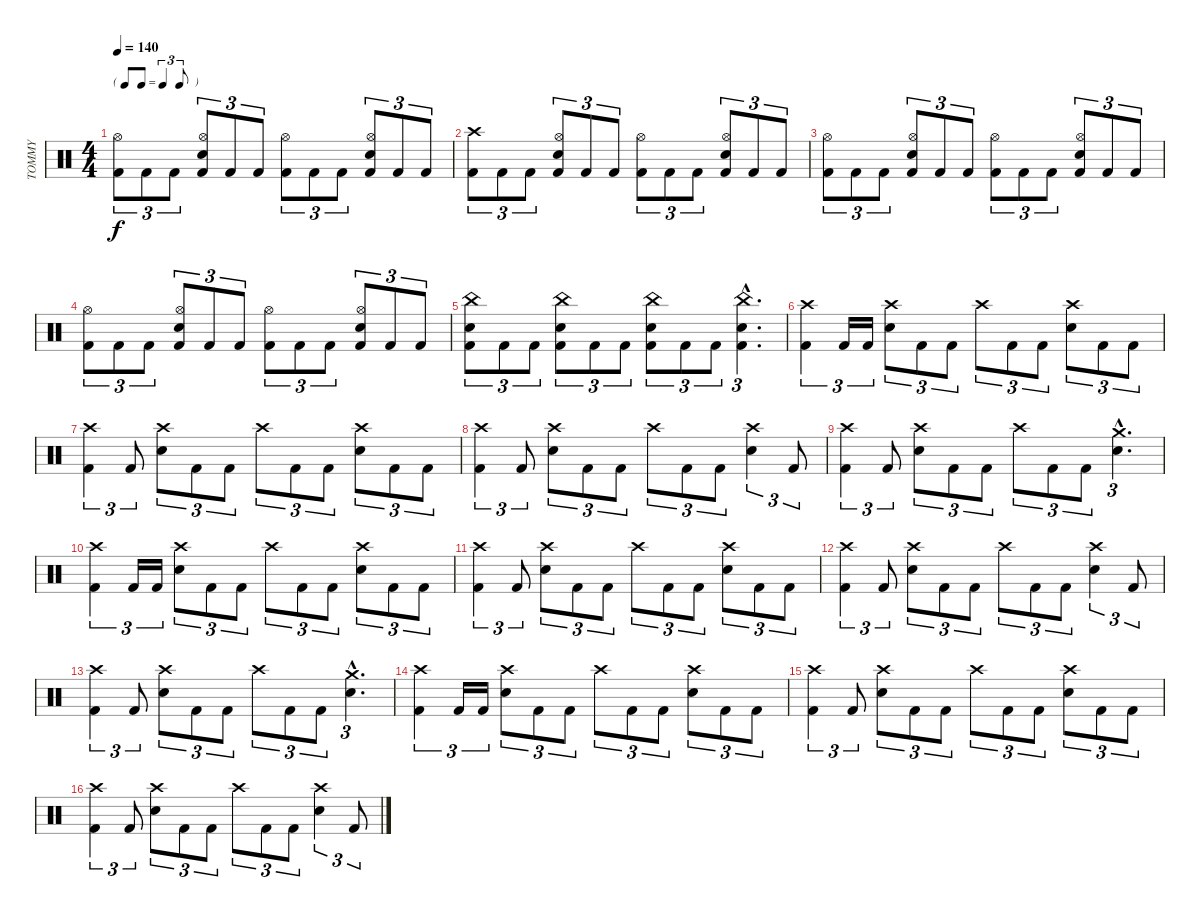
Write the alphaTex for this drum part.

\track ("TOMMY" "TOMMY") {instrument percussion}
\staff {score}
\articulation defaults
\ts (4 4)
\tf triplet8th
\tempo 140
\clef neutral
\ks c
("Kick (hit) 2" "Hi-Hat (open)").8{tu (3 2) dy f} "Kick (hit) 2".8{tu (3 2)} "Kick (hit) 2".8{tu (3 2)} ("Snare (hit) 2" "Kick (hit) 2" "Hi-Hat (open)").8{tu (3 2)} "Kick (hit) 2".8{tu (3 2)} "Kick (hit) 2".8{tu (3 2)} ("Kick (hit) 2" "Hi-Hat (open)").8{tu (3 2)} "Kick (hit) 2".8{tu (3 2)} "Kick (hit) 2".8{tu (3 2)} ("Snare (hit) 2" "Kick (hit) 2" "Hi-Hat (open)").8{tu (3 2)} "Kick (hit) 2".8{tu (3 2)} "Kick (hit) 2".8{tu (3 2)} |
("Kick (hit) 2" "Crash high (hit)").8{tu (3 2)} "Kick (hit) 2".8{tu (3 2)} "Kick (hit) 2".8{tu (3 2)} ("Snare (hit) 2" "Kick (hit) 2" "Hi-Hat (open)").8{tu (3 2)} "Kick (hit) 2".8{tu (3 2)} "Kick (hit) 2".8{tu (3 2)} ("Kick (hit) 2" "Hi-Hat (open)").8{tu (3 2)} "Kick (hit) 2".8{tu (3 2)} "Kick (hit) 2".8{tu (3 2)} ("Snare (hit) 2" "Kick (hit) 2" "Hi-Hat (open)").8{tu (3 2)} "Kick (hit) 2".8{tu (3 2)} "Kick (hit) 2".8{tu (3 2)} |
("Kick (hit) 2" "Hi-Hat (open)").8{tu (3 2)} "Kick (hit) 2".8{tu (3 2)} "Kick (hit) 2".8{tu (3 2)} ("Snare (hit) 2" "Kick (hit) 2" "Hi-Hat (open)").8{tu (3 2)} "Kick (hit) 2".8{tu (3 2)} "Kick (hit) 2".8{tu (3 2)} ("Kick (hit) 2" "Hi-Hat (open)").8{tu (3 2)} "Kick (hit) 2".8{tu (3 2)} "Kick (hit) 2".8{tu (3 2)} ("Snare (hit) 2" "Kick (hit) 2" "Hi-Hat (open)").8{tu (3 2)} "Kick (hit) 2".8{tu (3 2)} "Kick (hit) 2".8{tu (3 2)} |
("Kick (hit) 2" "Hi-Hat (open)").8{tu (3 2)} "Kick (hit) 2".8{tu (3 2)} "Kick (hit) 2".8{tu (3 2)} ("Snare (hit) 2" "Kick (hit) 2" "Hi-Hat (open)").8{tu (3 2)} "Kick (hit) 2".8{tu (3 2)} "Kick (hit) 2".8{tu (3 2)} ("Kick (hit) 2" "Hi-Hat (open)").8{tu (3 2)} "Kick (hit) 2".8{tu (3 2)} "Kick (hit) 2".8{tu (3 2)} ("Snare (hit) 2" "Kick (hit) 2" "Hi-Hat (open)").8{tu (3 2)} "Kick (hit) 2".8{tu (3 2)} "Kick (hit) 2".8{tu (3 2)} |
("Snare (hit) 2" "Kick (hit) 2" "China (hit)").8{tu (3 2)} "Kick (hit) 2".8{tu (3 2)} "Kick (hit) 2".8{tu (3 2)} ("Snare (hit) 2" "Kick (hit) 2" "China (hit)").8{tu (3 2)} "Kick (hit) 2".8{tu (3 2)} "Kick (hit) 2".8{tu (3 2)} ("Snare (hit) 2" "Kick (hit) 2" "China (hit)").8{tu (3 2)} "Kick (hit) 2".8{tu (3 2)} "Kick (hit) 2".8{tu (3 2)} ("Snare (hit) 2"{hac} "Kick (hit) 2"{hac} "China (hit)"{hac}).4{d tu (3 2)} |
("Kick (hit) 2" "Crash high (hit)").4{tu (3 2)} "Kick (hit) 2".16{tu (3 2)} "Kick (hit) 2".16{tu (3 2)} ("Snare (hit) 2" "Crash high (hit)").8{tu (3 2)} "Kick (hit) 2".8{tu (3 2)} "Kick (hit) 2".8{tu (3 2)} "Crash high (hit)".8{tu (3 2)} "Kick (hit) 2".8{tu (3 2)} "Kick (hit) 2".8{tu (3 2)} ("Snare (hit) 2" "Crash high (hit)").8{tu (3 2)} "Kick (hit) 2".8{tu (3 2)} "Kick (hit) 2".8{tu (3 2)} |
("Kick (hit) 2" "Crash high (hit)").4{tu (3 2)} "Kick (hit) 2".8{tu (3 2)} ("Snare (hit) 2" "Crash high (hit)").8{tu (3 2)} "Kick (hit) 2".8{tu (3 2)} "Kick (hit) 2".8{tu (3 2)} "Crash high (hit)".8{tu (3 2)} "Kick (hit) 2".8{tu (3 2)} "Kick (hit) 2".8{tu (3 2)} ("Snare (hit) 2" "Crash high (hit)").8{tu (3 2)} "Kick (hit) 2".8{tu (3 2)} "Kick (hit) 2".8{tu (3 2)} |
("Kick (hit) 2" "Crash high (hit)").4{tu (3 2)} "Kick (hit) 2".8{tu (3 2)} ("Snare (hit) 2" "Crash high (hit)").8{tu (3 2)} "Kick (hit) 2".8{tu (3 2)} "Kick (hit) 2".8{tu (3 2)} "Crash high (hit)".8{tu (3 2)} "Kick (hit) 2".8{tu (3 2)} "Kick (hit) 2".8{tu (3 2)} ("Snare (hit) 2" "Crash high (hit)").4{tu (3 2)} "Kick (hit) 2".8{tu (3 2)} |
("Kick (hit) 2" "Crash high (hit)").4{tu (3 2)} "Kick (hit) 2".8{tu (3 2)} ("Snare (hit) 2" "Crash high (hit)").8{tu (3 2)} "Kick (hit) 2".8{tu (3 2)} "Kick (hit) 2".8{tu (3 2)} "Crash high (hit)".8{tu (3 2)} "Kick (hit) 2".8{tu (3 2)} "Kick (hit) 2".8{tu (3 2)} ("Snare (hit) 2"{hac} "Crash medium (hit)"{hac}).4{d tu (3 2)} |
("Kick (hit) 2" "Crash high (hit)").4{tu (3 2)} "Kick (hit) 2".16{tu (3 2)} "Kick (hit) 2".16{tu (3 2)} ("Snare (hit) 2" "Crash high (hit)").8{tu (3 2)} "Kick (hit) 2".8{tu (3 2)} "Kick (hit) 2".8{tu (3 2)} "Crash high (hit)".8{tu (3 2)} "Kick (hit) 2".8{tu (3 2)} "Kick (hit) 2".8{tu (3 2)} ("Snare (hit) 2" "Crash high (hit)").8{tu (3 2)} "Kick (hit) 2".8{tu (3 2)} "Kick (hit) 2".8{tu (3 2)} |
("Kick (hit) 2" "Crash high (hit)").4{tu (3 2)} "Kick (hit) 2".8{tu (3 2)} ("Snare (hit) 2" "Crash high (hit)").8{tu (3 2)} "Kick (hit) 2".8{tu (3 2)} "Kick (hit) 2".8{tu (3 2)} "Crash high (hit)".8{tu (3 2)} "Kick (hit) 2".8{tu (3 2)} "Kick (hit) 2".8{tu (3 2)} ("Snare (hit) 2" "Crash high (hit)").8{tu (3 2)} "Kick (hit) 2".8{tu (3 2)} "Kick (hit) 2".8{tu (3 2)} |
("Kick (hit) 2" "Crash high (hit)").4{tu (3 2)} "Kick (hit) 2".8{tu (3 2)} ("Snare (hit) 2" "Crash high (hit)").8{tu (3 2)} "Kick (hit) 2".8{tu (3 2)} "Kick (hit) 2".8{tu (3 2)} "Crash high (hit)".8{tu (3 2)} "Kick (hit) 2".8{tu (3 2)} "Kick (hit) 2".8{tu (3 2)} ("Snare (hit) 2" "Crash high (hit)").4{tu (3 2)} "Kick (hit) 2".8{tu (3 2)} |
("Kick (hit) 2" "Crash high (hit)").4{tu (3 2)} "Kick (hit) 2".8{tu (3 2)} ("Snare (hit) 2" "Crash high (hit)").8{tu (3 2)} "Kick (hit) 2".8{tu (3 2)} "Kick (hit) 2".8{tu (3 2)} "Crash high (hit)".8{tu (3 2)} "Kick (hit) 2".8{tu (3 2)} "Kick (hit) 2".8{tu (3 2)} ("Snare (hit) 2"{hac} "Crash medium (hit)"{hac}).4{d tu (3 2)} |
("Kick (hit) 2" "Crash high (hit)").4{tu (3 2)} "Kick (hit) 2".16{tu (3 2)} "Kick (hit) 2".16{tu (3 2)} ("Snare (hit) 2" "Crash high (hit)").8{tu (3 2)} "Kick (hit) 2".8{tu (3 2)} "Kick (hit) 2".8{tu (3 2)} "Crash high (hit)".8{tu (3 2)} "Kick (hit) 2".8{tu (3 2)} "Kick (hit) 2".8{tu (3 2)} ("Snare (hit) 2" "Crash high (hit)").8{tu (3 2)} "Kick (hit) 2".8{tu (3 2)} "Kick (hit) 2".8{tu (3 2)} |
("Kick (hit) 2" "Crash high (hit)").4{tu (3 2)} "Kick (hit) 2".8{tu (3 2)} ("Snare (hit) 2" "Crash high (hit)").8{tu (3 2)} "Kick (hit) 2".8{tu (3 2)} "Kick (hit) 2".8{tu (3 2)} "Crash high (hit)".8{tu (3 2)} "Kick (hit) 2".8{tu (3 2)} "Kick (hit) 2".8{tu (3 2)} ("Snare (hit) 2" "Crash high (hit)").8{tu (3 2)} "Kick (hit) 2".8{tu (3 2)} "Kick (hit) 2".8{tu (3 2)} |
("Kick (hit) 2" "Crash high (hit)").4{tu (3 2)} "Kick (hit) 2".8{tu (3 2)} ("Snare (hit) 2" "Crash high (hit)").8{tu (3 2)} "Kick (hit) 2".8{tu (3 2)} "Kick (hit) 2".8{tu (3 2)} "Crash high (hit)".8{tu (3 2)} "Kick (hit) 2".8{tu (3 2)} "Kick (hit) 2".8{tu (3 2)} ("Snare (hit) 2" "Crash high (hit)").4{tu (3 2)} "Kick (hit) 2".8{tu (3 2)}
